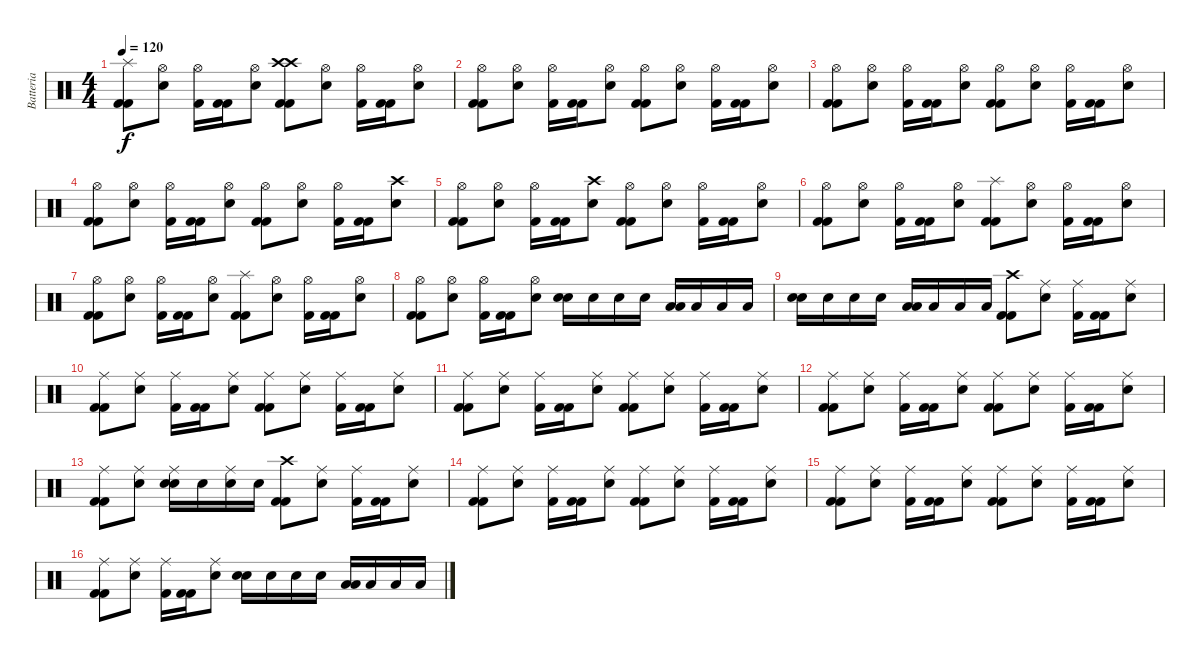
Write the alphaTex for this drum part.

\track ("Batteria" "Batteria") {instrument percussion}
\staff {score}
\articulation defaults
\ts (4 4)
\tempo 120
\clef neutral
\ks c
("Kick (hit) 2" "Kick (hit) 2" "Splash (hit)").8{dy f} ("Snare (hit) 2" "Hi-Hat (open)").8 ("Kick (hit) 2" "Hi-Hat (open)").16 ("Kick (hit) 2" "Kick (hit) 2").16 ("Snare (hit) 2" "Hi-Hat (open)").8 ("Crash high (hit)" "Kick (hit) 2" "Kick (hit) 2" "Crash high (hit)").8 ("Snare (hit) 2" "Hi-Hat (open)").8 ("Kick (hit) 2" "Hi-Hat (open)").16 ("Kick (hit) 2" "Kick (hit) 2").16 ("Snare (hit) 2" "Hi-Hat (open)").8 |
("Kick (hit) 2" "Kick (hit) 2" "Hi-Hat (open)").8 ("Snare (hit) 2" "Hi-Hat (open)").8 ("Kick (hit) 2" "Hi-Hat (open)").16 ("Kick (hit) 2" "Kick (hit) 2").16 ("Snare (hit) 2" "Hi-Hat (open)").8 ("Hi-Hat (open)" "Kick (hit) 2" "Kick (hit) 2").8 ("Snare (hit) 2" "Hi-Hat (open)").8 ("Kick (hit) 2" "Hi-Hat (open)").16 ("Kick (hit) 2" "Kick (hit) 2").16 ("Snare (hit) 2" "Hi-Hat (open)").8 |
("Hi-Hat (open)" "Kick (hit) 2" "Kick (hit) 2").8 ("Snare (hit) 2" "Hi-Hat (open)").8 ("Kick (hit) 2" "Hi-Hat (open)").16 ("Kick (hit) 2" "Kick (hit) 2").16 ("Snare (hit) 2" "Hi-Hat (open)").8 ("Hi-Hat (open)" "Kick (hit) 2" "Kick (hit) 2").8 ("Snare (hit) 2" "Hi-Hat (open)").8 ("Kick (hit) 2" "Hi-Hat (open)").16 ("Kick (hit) 2" "Kick (hit) 2").16 ("Snare (hit) 2" "Hi-Hat (open)").8 |
("Hi-Hat (open)" "Kick (hit) 2" "Kick (hit) 2").8 ("Snare (hit) 2" "Hi-Hat (open)").8 ("Kick (hit) 2" "Hi-Hat (open)").16 ("Kick (hit) 2" "Kick (hit) 2").16 ("Snare (hit) 2" "Hi-Hat (open)").8 ("Kick (hit) 2" "Kick (hit) 2" "Hi-Hat (open)").8 ("Snare (hit) 2" "Hi-Hat (open)").8 ("Kick (hit) 2" "Hi-Hat (open)").16 ("Kick (hit) 2" "Kick (hit) 2").16 ("Crash high (hit)" "Snare (hit) 2").8 |
("Hi-Hat (open)" "Kick (hit) 2" "Kick (hit) 2").8 ("Snare (hit) 2" "Hi-Hat (open)").8 ("Kick (hit) 2" "Hi-Hat (open)").16 ("Kick (hit) 2" "Kick (hit) 2").16 ("Crash high (hit)" "Snare (hit) 2").8 ("Kick (hit) 2" "Kick (hit) 2" "Hi-Hat (open)").8 ("Snare (hit) 2" "Hi-Hat (open)").8 ("Kick (hit) 2" "Hi-Hat (open)").16 ("Kick (hit) 2" "Kick (hit) 2").16 ("Snare (hit) 2" "Hi-Hat (open)").8 |
("Hi-Hat (open)" "Kick (hit) 2" "Kick (hit) 2").8 ("Snare (hit) 2" "Hi-Hat (open)").8 ("Kick (hit) 2" "Hi-Hat (open)").16 ("Kick (hit) 2" "Kick (hit) 2").16 ("Snare (hit) 2" "Hi-Hat (open)").8 ("Kick (hit) 2" "Kick (hit) 2" "Splash (hit)").8 ("Snare (hit) 2" "Hi-Hat (open)").8 ("Kick (hit) 2" "Hi-Hat (open)").16 ("Kick (hit) 2" "Kick (hit) 2").16 ("Snare (hit) 2" "Hi-Hat (open)").8 |
("Hi-Hat (open)" "Kick (hit) 2" "Kick (hit) 2").8 ("Snare (hit) 2" "Hi-Hat (open)").8 ("Kick (hit) 2" "Hi-Hat (open)").16 ("Kick (hit) 2" "Kick (hit) 2").16 ("Snare (hit) 2" "Hi-Hat (open)").8 ("Kick (hit) 2" "Kick (hit) 2" "Splash (hit)").8 ("Snare (hit) 2" "Hi-Hat (open)").8 ("Kick (hit) 2" "Hi-Hat (open)").16 ("Kick (hit) 2" "Kick (hit) 2").16 ("Snare (hit) 2" "Hi-Hat (open)").8 |
("Hi-Hat (open)" "Kick (hit) 2" "Kick (hit) 2").8 ("Snare (hit) 2" "Hi-Hat (open)").8 ("Kick (hit) 2" "Hi-Hat (open)").16 ("Kick (hit) 2" "Kick (hit) 2").16 ("Snare (hit) 2" "Hi-Hat (open)").8 ("Snare (hit) 2" "Snare (hit) 2").16 "Snare (hit) 2".16 "Snare (hit) 2".16 "Snare (hit) 2".16 ("Low Tom (hit)" "Low Tom (hit)").16 "Low Tom (hit)".16 "Low Tom (hit)".16 "Low Tom (hit)".16 |
("Snare (hit) 2" "Snare (hit) 2").16 "Snare (hit) 2".16 "Snare (hit) 2".16 "Snare (hit) 2".16 ("Low Floor Tom (hit)" "Low Floor Tom (hit)").16 "Low Floor Tom (hit)".16 "Low Floor Tom (hit)".16 "Low Floor Tom (hit)".16 ("Kick (hit) 2" "Kick (hit) 2" "Crash high (hit)").8 ("Snare (hit) 2" "Ride (middle)").8 ("Kick (hit) 2" "Ride (middle)").16 ("Kick (hit) 2" "Kick (hit) 2").16 ("Snare (hit) 2" "Ride (middle)").8 |
("Kick (hit) 2" "Kick (hit) 2" "Ride (middle)").8 ("Snare (hit) 2" "Ride (middle)").8 ("Kick (hit) 2" "Ride (middle)").16 ("Kick (hit) 2" "Kick (hit) 2").16 ("Snare (hit) 2" "Ride (middle)").8 ("Kick (hit) 2" "Kick (hit) 2" "Ride (middle)").8 ("Snare (hit) 2" "Ride (middle)").8 ("Kick (hit) 2" "Ride (middle)").16 ("Kick (hit) 2" "Kick (hit) 2").16 ("Snare (hit) 2" "Ride (middle)").8 |
("Kick (hit) 2" "Kick (hit) 2" "Ride (middle)").8 ("Snare (hit) 2" "Ride (middle)").8 ("Kick (hit) 2" "Ride (middle)").16 ("Kick (hit) 2" "Kick (hit) 2").16 ("Snare (hit) 2" "Ride (middle)").8 ("Kick (hit) 2" "Kick (hit) 2" "Ride (middle)").8 ("Snare (hit) 2" "Ride (middle)").8 ("Kick (hit) 2" "Ride (middle)").16 ("Kick (hit) 2" "Kick (hit) 2").16 ("Snare (hit) 2" "Ride (middle)").8 |
("Kick (hit) 2" "Kick (hit) 2" "Ride (middle)").8 ("Snare (hit) 2" "Ride (middle)").8 ("Kick (hit) 2" "Ride (middle)").16 ("Kick (hit) 2" "Kick (hit) 2").16 ("Snare (hit) 2" "Ride (middle)").8 ("Ride (middle)" "Kick (hit) 2" "Kick (hit) 2").8 ("Ride (middle)" "Snare (hit) 2").8 ("Ride (middle)" "Kick (hit) 2").16 ("Kick (hit) 2" "Kick (hit) 2").16 ("Ride (middle)" "Snare (hit) 2").8 |
("Ride (middle)" "Kick (hit) 2" "Kick (hit) 2").8 ("Ride (middle)" "Snare (hit) 2").8 ("Ride (middle)" "Snare (hit) 2" "Snare (hit) 2").16 "Snare (hit) 2".16 ("Ride (middle)" "Snare (hit) 2").16 "Snare (hit) 2".16 ("Kick (hit) 2" "Kick (hit) 2" "Crash high (hit)").8 ("Snare (hit) 2" "Ride (middle)").8 ("Kick (hit) 2" "Ride (middle)").16 ("Kick (hit) 2" "Kick (hit) 2").16 ("Snare (hit) 2" "Ride (middle)").8 |
("Kick (hit) 2" "Kick (hit) 2" "Ride (middle)").8 ("Snare (hit) 2" "Ride (middle)").8 ("Kick (hit) 2" "Ride (middle)").16 ("Kick (hit) 2" "Kick (hit) 2").16 ("Snare (hit) 2" "Ride (middle)").8 ("Kick (hit) 2" "Kick (hit) 2" "Ride (middle)").8 ("Snare (hit) 2" "Ride (middle)").8 ("Kick (hit) 2" "Ride (middle)").16 ("Kick (hit) 2" "Kick (hit) 2").16 ("Snare (hit) 2" "Ride (middle)").8 |
("Kick (hit) 2" "Kick (hit) 2" "Ride (middle)").8 ("Snare (hit) 2" "Ride (middle)").8 ("Kick (hit) 2" "Ride (middle)").16 ("Kick (hit) 2" "Kick (hit) 2").16 ("Snare (hit) 2" "Ride (middle)").8 ("Kick (hit) 2" "Kick (hit) 2" "Ride (middle)").8 ("Snare (hit) 2" "Ride (middle)").8 ("Kick (hit) 2" "Ride (middle)").16 ("Kick (hit) 2" "Kick (hit) 2").16 ("Snare (hit) 2" "Ride (middle)").8 |
("Kick (hit) 2" "Kick (hit) 2" "Ride (middle)").8 ("Snare (hit) 2" "Ride (middle)").8 ("Kick (hit) 2" "Ride (middle)").16 ("Kick (hit) 2" "Kick (hit) 2").16 ("Snare (hit) 2" "Ride (middle)").8 ("Snare (hit) 2" "Snare (hit) 2").16 "Snare (hit) 2".16 "Snare (hit) 2".16 "Snare (hit) 2".16 ("Low Tom (hit)" "Low Tom (hit)").16 "Low Tom (hit)".16 "Low Tom (hit)".16 "Low Tom (hit)".16
